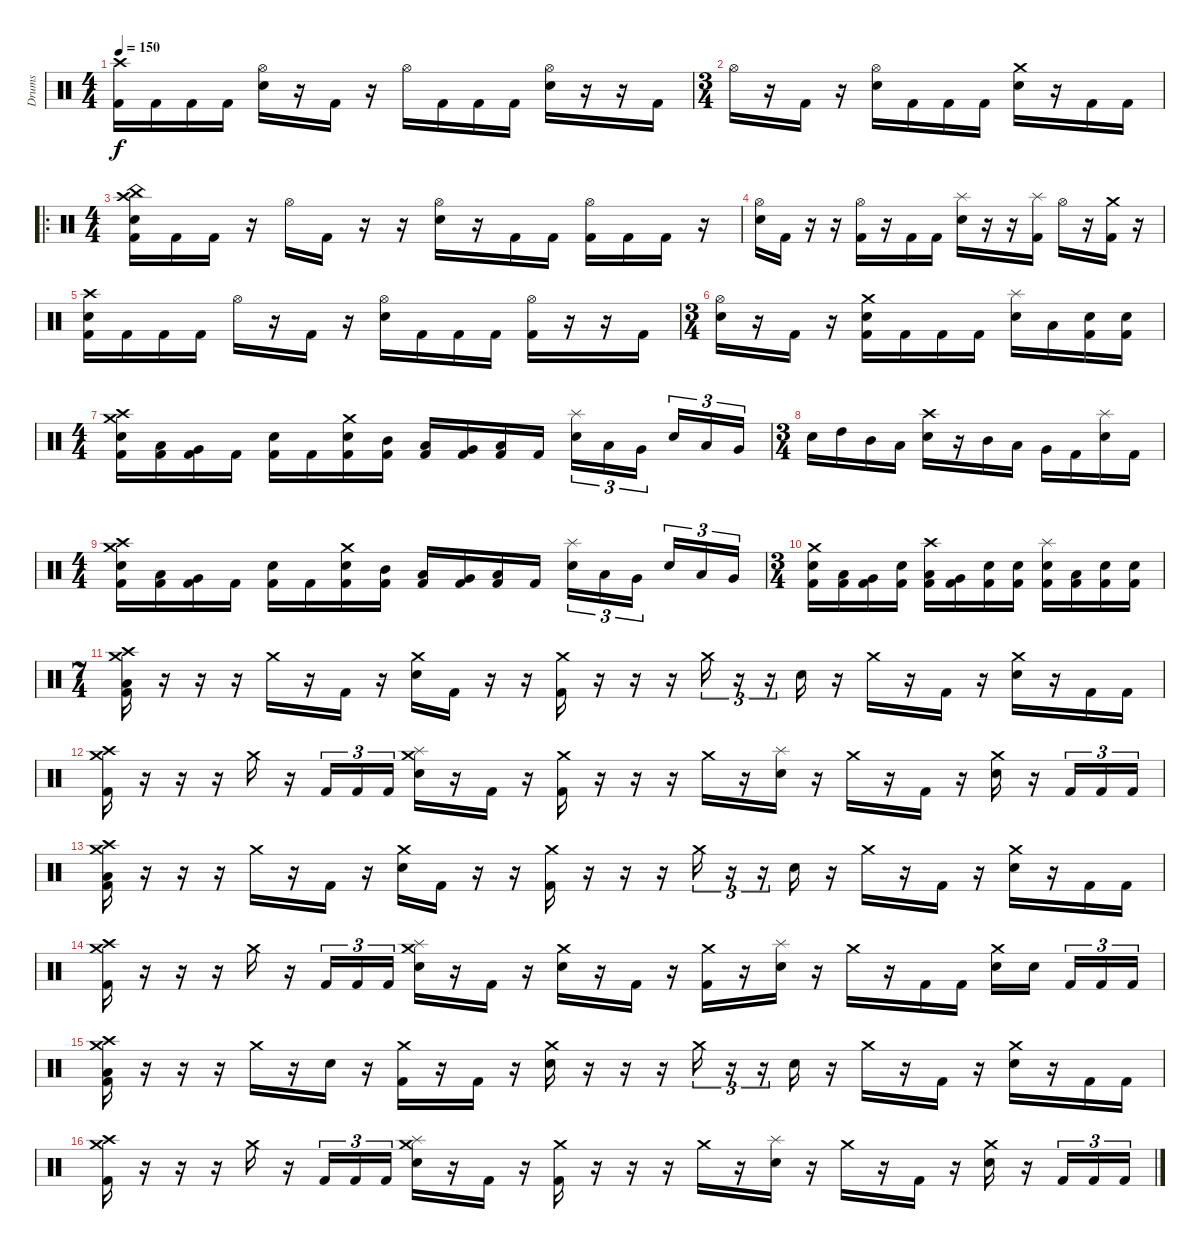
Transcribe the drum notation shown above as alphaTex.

\track ("Drums" "Drums") {instrument percussion}
\staff {score}
\articulation defaults
\ts (4 4)
\tempo 150
\clef neutral
\ks c
("Crash high (hit)" "Kick (hit) 2").16{dy f} "Kick (hit) 2".16 "Kick (hit) 2".16 "Kick (hit) 2".16 ("Hi-Hat (open)" "Electric Snare (hit)").16 r.16 "Kick (hit) 2".16 r.16 "Hi-Hat (open)".16 "Kick (hit) 2".16 "Kick (hit) 2".16 "Kick (hit) 2".16 ("Hi-Hat (open)" "Electric Snare (hit)").16 r.16 r.16 "Kick (hit) 2".16 |
\ts (3 4)
"Hi-Hat (open)".16 r.16 "Kick (hit) 2".16 r.16 ("Hi-Hat (open)" "Electric Snare (hit)").16 "Kick (hit) 2".16 "Kick (hit) 2".16 "Kick (hit) 2".16 ("Crash medium (hit)" "Electric Snare (hit)").16 r.16 "Kick (hit) 2".16 "Kick (hit) 2".16 |
\ro
\ts (4 4)
("Crash high (hit)" "China (hit)" "Electric Snare (hit)" "Kick (hit) 2").16 "Kick (hit) 2".16 "Kick (hit) 2".16 r.16 "Hi-Hat (open)".16 "Kick (hit) 2".16 r.16 r.16 ("Hi-Hat (open)" "Electric Snare (hit)").16 r.16 "Kick (hit) 2".16 "Kick (hit) 2".16 ("Hi-Hat (open)" "Kick (hit) 2").16 "Kick (hit) 2".16 "Kick (hit) 2".16 r.16 |
("Hi-Hat (open)" "Electric Snare (hit)").16 "Kick (hit) 2".16 r.16 r.16 ("Hi-Hat (open)" "Kick (hit) 2").16 r.16 "Kick (hit) 2".16 "Kick (hit) 2".16 ("Splash (hit)" "Electric Snare (hit)").16 r.16 r.16 ("Splash (hit)" "Kick (hit) 2").16 "Hi-Hat (open)".16 r.16 ("Crash medium (hit)" "Kick (hit) 2").16 r.16 |
("Crash high (hit)" "Electric Snare (hit)" "Kick (hit) 2").16 "Kick (hit) 2".16 "Kick (hit) 2".16 "Kick (hit) 2".16 "Hi-Hat (open)".16 r.16 "Kick (hit) 2".16 r.16 ("Hi-Hat (open)" "Electric Snare (hit)").16 "Kick (hit) 2".16 "Kick (hit) 2".16 "Kick (hit) 2".16 ("Hi-Hat (open)" "Kick (hit) 2").16 r.16 r.16 "Kick (hit) 2".16 |
\ts (3 4)
("Hi-Hat (open)" "Electric Snare (hit)").16 r.16 "Kick (hit) 2".16 r.16 ("Crash medium (hit)" "Electric Snare (hit)" "Kick (hit) 2").16 "Kick (hit) 2".16 "Kick (hit) 2".16 "Kick (hit) 2".16 ("Splash (hit)" "Electric Snare (hit)").16 "Low Tom (hit)".16 ("Electric Snare (hit)" "Kick (hit) 2").16 ("Electric Snare (hit)" "Kick (hit) 2").16 |
\ts (4 4)
("Crash medium (hit)" "Crash high (hit)" "Electric Snare (hit)" "Kick (hit) 2").16 ("Low Tom (hit)" "Kick (hit) 2").16 ("Very Low Tom (hit)" "Kick (hit) 2").16 "Kick (hit) 2".16 ("Electric Snare (hit)" "Kick (hit) 2").16 "Kick (hit) 2".16 ("Crash medium (hit)" "Electric Snare (hit)" "Kick (hit) 2").16 ("Mid Tom (hit)" "Kick (hit) 2").16 ("Low Tom (hit)" "Kick (hit) 2").16 ("Very Low Tom (hit)" "Kick (hit) 2").16 ("Low Floor Tom (hit)" "Kick (hit) 2").16 "Kick (hit) 2".16 ("Splash (hit)" "Electric Snare (hit)").16{tu (3 2)} "Low Tom (hit)".16{tu (3 2)} "Very Low Tom (hit)".16{tu (3 2)} "Electric Snare (hit)".16{tu (3 2)} "Low Tom (hit)".16{tu (3 2)} "Very Low Tom (hit)".16{tu (3 2)} |
\ts (3 4)
"Electric Snare (hit)".16 "High Tom (hit)".16 "Mid Tom (hit)".16 "Low Tom (hit)".16 ("Crash high (hit)" "Electric Snare (hit)").16 r.16 "Mid Tom (hit)".16 "Low Tom (hit)".16 "Very Low Tom (hit)".16 "Kick (hit) 2".16 ("Splash (hit)" "Electric Snare (hit)").16 "Kick (hit) 2".16 |
\ts (4 4)
("Crash medium (hit)" "Crash high (hit)" "Electric Snare (hit)" "Kick (hit) 2").16 ("Low Tom (hit)" "Kick (hit) 2").16 ("Very Low Tom (hit)" "Kick (hit) 2").16 "Kick (hit) 2".16 ("Electric Snare (hit)" "Kick (hit) 2").16 "Kick (hit) 2".16 ("Crash medium (hit)" "Electric Snare (hit)" "Kick (hit) 2").16 ("Mid Tom (hit)" "Kick (hit) 2").16 ("Low Tom (hit)" "Kick (hit) 2").16 ("Very Low Tom (hit)" "Kick (hit) 2").16 ("Low Floor Tom (hit)" "Kick (hit) 2").16 "Kick (hit) 2".16 ("Splash (hit)" "Electric Snare (hit)").16{tu (3 2)} "Low Tom (hit)".16{tu (3 2)} "Very Low Tom (hit)".16{tu (3 2)} "Electric Snare (hit)".16{tu (3 2)} "Low Tom (hit)".16{tu (3 2)} "Very Low Tom (hit)".16{tu (3 2)} |
\ts (3 4)
("Crash medium (hit)" "Electric Snare (hit)" "Kick (hit) 2").16 ("Low Tom (hit)" "Kick (hit) 2").16 ("Very Low Tom (hit)" "Kick (hit) 2").16 ("Electric Snare (hit)" "Kick (hit) 2").16 ("Crash high (hit)" "Low Tom (hit)" "Kick (hit) 2").16 ("Very Low Tom (hit)" "Kick (hit) 2").16 ("Electric Snare (hit)" "Kick (hit) 2").16 ("Electric Snare (hit)" "Kick (hit) 2").16 ("Splash (hit)" "Electric Snare (hit)" "Kick (hit) 2").16 ("Low Tom (hit)" "Kick (hit) 2").16 ("Electric Snare (hit)" "Kick (hit) 2").16 ("Electric Snare (hit)" "Kick (hit) 2").16 |
\ts (7 4)
("Crash high (hit)" "Crash medium (hit)" "Low Floor Tom (hit)" "Kick (hit) 2").16 r.16 r.16 r.16 "Crash medium (hit)".16 r.16 "Kick (hit) 2".16 r.16 ("Crash medium (hit)" "Electric Snare (hit)").16 "Kick (hit) 2".16 r.16 r.16 ("Crash medium (hit)" "Kick (hit) 2").16 r.16 r.16 r.16 "Crash medium (hit)".16{tu (3 2)} r.16{tu (3 2)} r.16{tu (3 2)} "Electric Snare (hit)".16 r.16 "Crash medium (hit)".16 r.16 "Kick (hit) 2".16 r.16 ("Crash medium (hit)" "Electric Snare (hit)").16 r.16 "Kick (hit) 2".16 "Kick (hit) 2".16 |
("Crash high (hit)" "Crash medium (hit)" "Kick (hit) 2").16 r.16 r.16 r.16 "Crash medium (hit)".16 r.16 "Kick (hit) 2".16{tu (3 2)} "Kick (hit) 2".16{tu (3 2)} "Kick (hit) 2".16{tu (3 2)} ("Crash medium (hit)" "Splash (hit)" "Electric Snare (hit)").16 r.16 "Kick (hit) 2".16 r.16 ("Crash medium (hit)" "Kick (hit) 2").16 r.16 r.16 r.16 "Crash medium (hit)".16 r.16 ("Splash (hit)" "Electric Snare (hit)").16 r.16 "Crash medium (hit)".16 r.16 "Kick (hit) 2".16 r.16 ("Crash medium (hit)" "Electric Snare (hit)").16 r.16 "Kick (hit) 2".16{tu (3 2)} "Kick (hit) 2".16{tu (3 2)} "Kick (hit) 2".16{tu (3 2)} |
("Crash high (hit)" "Crash medium (hit)" "Low Floor Tom (hit)" "Kick (hit) 2").16 r.16 r.16 r.16 "Crash medium (hit)".16 r.16 "Kick (hit) 2".16 r.16 ("Crash medium (hit)" "Electric Snare (hit)").16 "Kick (hit) 2".16 r.16 r.16 ("Crash medium (hit)" "Kick (hit) 2").16 r.16 r.16 r.16 "Crash medium (hit)".16{tu (3 2)} r.16{tu (3 2)} r.16{tu (3 2)} "Electric Snare (hit)".16 r.16 "Crash medium (hit)".16 r.16 "Kick (hit) 2".16 r.16 ("Crash medium (hit)" "Electric Snare (hit)").16 r.16 "Kick (hit) 2".16 "Kick (hit) 2".16 |
("Crash high (hit)" "Crash medium (hit)" "Kick (hit) 2").16 r.16 r.16 r.16 "Crash medium (hit)".16 r.16 "Kick (hit) 2".16{tu (3 2)} "Kick (hit) 2".16{tu (3 2)} "Kick (hit) 2".16{tu (3 2)} ("Crash medium (hit)" "Splash (hit)" "Electric Snare (hit)").16 r.16 "Kick (hit) 2".16 r.16 ("Crash medium (hit)" "Electric Snare (hit)").16 r.16 "Kick (hit) 2".16 r.16 ("Crash medium (hit)" "Kick (hit) 2").16 r.16 ("Splash (hit)" "Electric Snare (hit)").16 r.16 "Crash medium (hit)".16 r.16 "Kick (hit) 2".16 "Kick (hit) 2".16 ("Crash medium (hit)" "Electric Snare (hit)").16 "Electric Snare (hit)".16 "Kick (hit) 2".16{tu (3 2)} "Kick (hit) 2".16{tu (3 2)} "Kick (hit) 2".16{tu (3 2)} |
("Crash high (hit)" "Crash medium (hit)" "Low Floor Tom (hit)" "Kick (hit) 2").16 r.16 r.16 r.16 "Crash medium (hit)".16 r.16 "Electric Snare (hit)".16 r.16 ("Crash medium (hit)" "Kick (hit) 2").16 r.16 "Kick (hit) 2".16 r.16 ("Crash medium (hit)" "Electric Snare (hit)").16 r.16 r.16 r.16 "Crash medium (hit)".16{tu (3 2)} r.16{tu (3 2)} r.16{tu (3 2)} "Electric Snare (hit)".16 r.16 "Crash medium (hit)".16 r.16 "Kick (hit) 2".16 r.16 ("Crash medium (hit)" "Electric Snare (hit)").16 r.16 "Kick (hit) 2".16 "Kick (hit) 2".16 |
("Crash high (hit)" "Crash medium (hit)" "Kick (hit) 2").16 r.16 r.16 r.16 "Crash medium (hit)".16 r.16 "Kick (hit) 2".16{tu (3 2)} "Kick (hit) 2".16{tu (3 2)} "Kick (hit) 2".16{tu (3 2)} ("Crash medium (hit)" "Splash (hit)" "Electric Snare (hit)").16 r.16 "Kick (hit) 2".16 r.16 ("Crash medium (hit)" "Kick (hit) 2").16 r.16 r.16 r.16 "Crash medium (hit)".16 r.16 ("Splash (hit)" "Electric Snare (hit)").16 r.16 "Crash medium (hit)".16 r.16 "Kick (hit) 2".16 r.16 ("Crash medium (hit)" "Electric Snare (hit)").16 r.16 "Kick (hit) 2".16{tu (3 2)} "Kick (hit) 2".16{tu (3 2)} "Kick (hit) 2".16{tu (3 2)}
